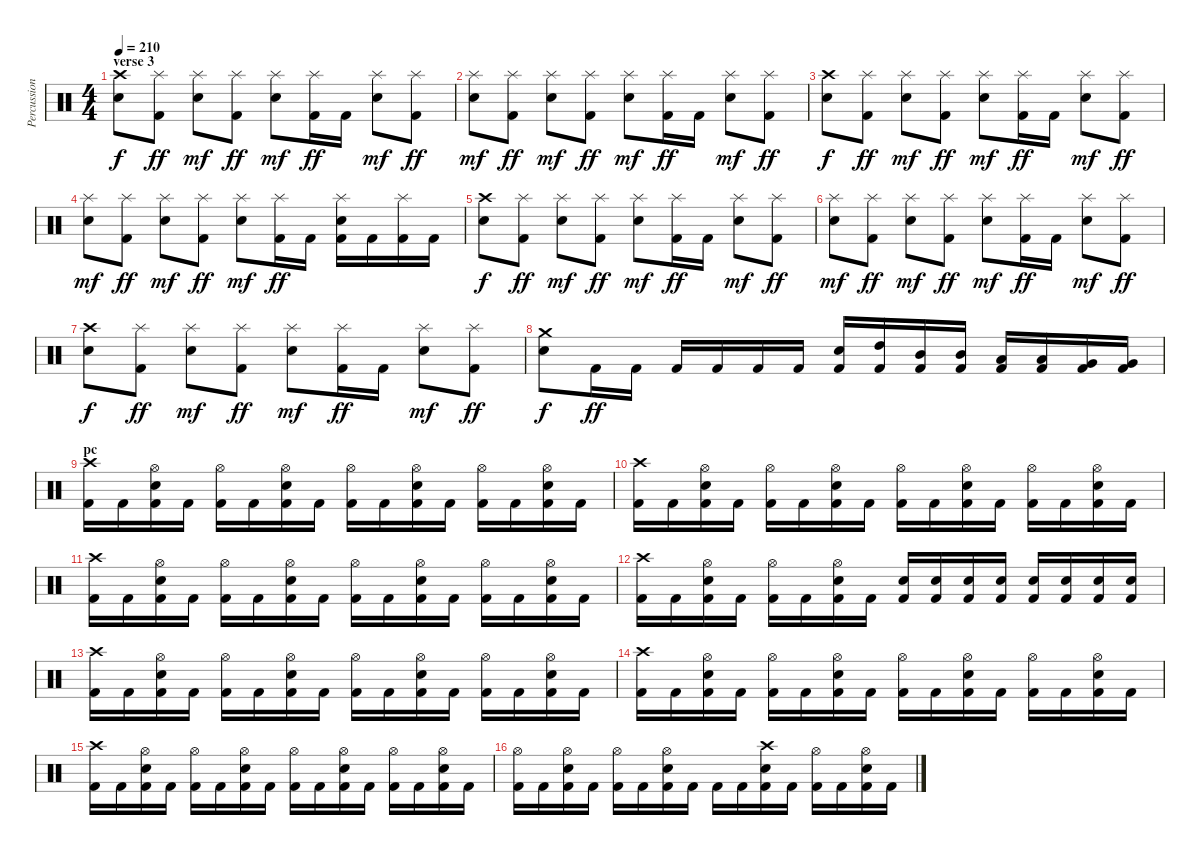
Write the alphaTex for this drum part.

\track ("Percussion" "Percussion") {instrument percussion}
\staff {score}
\articulation defaults
\ts (4 4)
\section ("" "verse 3")
\tempo 210
\clef neutral
\ks c
("Crash high (hit)" "Snare (hit) 2").8{dy f} ("Splash (hit)" "Kick (hit) 2").8{dy ff} ("Splash (hit)" "Snare (hit) 2").8{dy mf} ("Splash (hit)" "Kick (hit) 2").8{dy ff} ("Splash (hit)" "Snare (hit) 2").8{dy mf} ("Splash (hit)" "Kick (hit) 2").16{dy ff} "Kick (hit) 2".16 ("Splash (hit)" "Snare (hit) 2").8{dy mf} ("Splash (hit)" "Kick (hit) 2").8{dy ff} |
("Splash (hit)" "Snare (hit) 2").8{dy mf} ("Splash (hit)" "Kick (hit) 2").8{dy ff} ("Splash (hit)" "Snare (hit) 2").8{dy mf} ("Splash (hit)" "Kick (hit) 2").8{dy ff} ("Splash (hit)" "Snare (hit) 2").8{dy mf} ("Splash (hit)" "Kick (hit) 2").16{dy ff} "Kick (hit) 2".16 ("Splash (hit)" "Snare (hit) 2").8{dy mf} ("Splash (hit)" "Kick (hit) 2").8{dy ff} |
("Crash high (hit)" "Snare (hit) 2").8{dy f} ("Splash (hit)" "Kick (hit) 2").8{dy ff} ("Splash (hit)" "Snare (hit) 2").8{dy mf} ("Splash (hit)" "Kick (hit) 2").8{dy ff} ("Splash (hit)" "Snare (hit) 2").8{dy mf} ("Splash (hit)" "Kick (hit) 2").16{dy ff} "Kick (hit) 2".16 ("Splash (hit)" "Snare (hit) 2").8{dy mf} ("Splash (hit)" "Kick (hit) 2").8{dy ff} |
("Splash (hit)" "Snare (hit) 2").8{dy mf} ("Splash (hit)" "Kick (hit) 2").8{dy ff} ("Splash (hit)" "Snare (hit) 2").8{dy mf} ("Splash (hit)" "Kick (hit) 2").8{dy ff} ("Splash (hit)" "Snare (hit) 2").8{dy mf} ("Splash (hit)" "Kick (hit) 2").16{dy ff} "Kick (hit) 2".16 ("Splash (hit)" "Snare (hit) 2" "Kick (hit) 2").16 "Kick (hit) 2".16 ("Splash (hit)" "Kick (hit) 2").16 "Kick (hit) 2".16 |
("Crash high (hit)" "Snare (hit) 2").8{dy f} ("Splash (hit)" "Kick (hit) 2").8{dy ff} ("Splash (hit)" "Snare (hit) 2").8{dy mf} ("Splash (hit)" "Kick (hit) 2").8{dy ff} ("Splash (hit)" "Snare (hit) 2").8{dy mf} ("Splash (hit)" "Kick (hit) 2").16{dy ff} "Kick (hit) 2".16 ("Splash (hit)" "Snare (hit) 2").8{dy mf} ("Splash (hit)" "Kick (hit) 2").8{dy ff} |
("Splash (hit)" "Snare (hit) 2").8{dy mf} ("Splash (hit)" "Kick (hit) 2").8{dy ff} ("Splash (hit)" "Snare (hit) 2").8{dy mf} ("Splash (hit)" "Kick (hit) 2").8{dy ff} ("Splash (hit)" "Snare (hit) 2").8{dy mf} ("Splash (hit)" "Kick (hit) 2").16{dy ff} "Kick (hit) 2".16 ("Splash (hit)" "Snare (hit) 2").8{dy mf} ("Splash (hit)" "Kick (hit) 2").8{dy ff} |
("Crash high (hit)" "Snare (hit) 2").8{dy f} ("Splash (hit)" "Kick (hit) 2").8{dy ff} ("Splash (hit)" "Snare (hit) 2").8{dy mf} ("Splash (hit)" "Kick (hit) 2").8{dy ff} ("Splash (hit)" "Snare (hit) 2").8{dy mf} ("Splash (hit)" "Kick (hit) 2").16{dy ff} "Kick (hit) 2".16 ("Splash (hit)" "Snare (hit) 2").8{dy mf} ("Splash (hit)" "Kick (hit) 2").8{dy ff} |
("Crash medium (hit)" "Snare (hit) 2").8{dy f} "Kick (hit) 2".16{dy ff} "Kick (hit) 2".16 "Kick (hit) 2".16 "Kick (hit) 2".16 "Kick (hit) 2".16 "Kick (hit) 2".16 ("Snare (hit) 2" "Kick (hit) 2").16 ("High Tom (hit)" "Kick (hit) 2").16 ("Mid Tom (hit)" "Kick (hit) 2").16 ("Mid Tom (hit)" "Kick (hit) 2").16 ("Low Tom (hit)" "Kick (hit) 2").16 ("Low Tom (hit)" "Kick (hit) 2").16 ("Very Low Tom (hit)" "Kick (hit) 2").16 ("Very Low Tom (hit)" "Kick (hit) 2").16 |
\section ("" "pc")
("Crash high (hit)" "Kick (hit) 2").16 "Kick (hit) 2".16 ("Hi-Hat (open)" "Snare (hit) 2" "Kick (hit) 2").16 "Kick (hit) 2".16 ("Hi-Hat (open)" "Kick (hit) 2").16 "Kick (hit) 2".16 ("Hi-Hat (open)" "Snare (hit) 2" "Kick (hit) 2").16 "Kick (hit) 2".16 ("Hi-Hat (open)" "Kick (hit) 2").16 "Kick (hit) 2".16 ("Hi-Hat (open)" "Snare (hit) 2" "Kick (hit) 2").16 "Kick (hit) 2".16 ("Hi-Hat (open)" "Kick (hit) 2").16 "Kick (hit) 2".16 ("Hi-Hat (open)" "Snare (hit) 2" "Kick (hit) 2").16 "Kick (hit) 2".16 |
("Crash high (hit)" "Kick (hit) 2").16 "Kick (hit) 2".16 ("Hi-Hat (open)" "Snare (hit) 2" "Kick (hit) 2").16 "Kick (hit) 2".16 ("Hi-Hat (open)" "Kick (hit) 2").16 "Kick (hit) 2".16 ("Hi-Hat (open)" "Snare (hit) 2" "Kick (hit) 2").16 "Kick (hit) 2".16 ("Hi-Hat (open)" "Kick (hit) 2").16 "Kick (hit) 2".16 ("Hi-Hat (open)" "Snare (hit) 2" "Kick (hit) 2").16 "Kick (hit) 2".16 ("Hi-Hat (open)" "Kick (hit) 2").16 "Kick (hit) 2".16 ("Hi-Hat (open)" "Snare (hit) 2" "Kick (hit) 2").16 "Kick (hit) 2".16 |
("Crash high (hit)" "Kick (hit) 2").16 "Kick (hit) 2".16 ("Hi-Hat (open)" "Snare (hit) 2" "Kick (hit) 2").16 "Kick (hit) 2".16 ("Hi-Hat (open)" "Kick (hit) 2").16 "Kick (hit) 2".16 ("Hi-Hat (open)" "Snare (hit) 2" "Kick (hit) 2").16 "Kick (hit) 2".16 ("Hi-Hat (open)" "Kick (hit) 2").16 "Kick (hit) 2".16 ("Hi-Hat (open)" "Snare (hit) 2" "Kick (hit) 2").16 "Kick (hit) 2".16 ("Hi-Hat (open)" "Kick (hit) 2").16 "Kick (hit) 2".16 ("Hi-Hat (open)" "Snare (hit) 2" "Kick (hit) 2").16 "Kick (hit) 2".16 |
("Crash high (hit)" "Kick (hit) 2").16 "Kick (hit) 2".16 ("Hi-Hat (open)" "Snare (hit) 2" "Kick (hit) 2").16 "Kick (hit) 2".16 ("Hi-Hat (open)" "Kick (hit) 2").16 "Kick (hit) 2".16 ("Hi-Hat (open)" "Snare (hit) 2" "Kick (hit) 2").16 "Kick (hit) 2".16 ("Snare (hit) 2" "Kick (hit) 2").16 ("Snare (hit) 2" "Kick (hit) 2").16 ("Snare (hit) 2" "Kick (hit) 2").16 ("Snare (hit) 2" "Kick (hit) 2").16 ("Snare (hit) 2" "Kick (hit) 2").16 ("Snare (hit) 2" "Kick (hit) 2").16 ("Snare (hit) 2" "Kick (hit) 2").16 ("Snare (hit) 2" "Kick (hit) 2").16 |
("Crash high (hit)" "Kick (hit) 2").16 "Kick (hit) 2".16 ("Hi-Hat (open)" "Snare (hit) 2" "Kick (hit) 2").16 "Kick (hit) 2".16 ("Hi-Hat (open)" "Kick (hit) 2").16 "Kick (hit) 2".16 ("Hi-Hat (open)" "Snare (hit) 2" "Kick (hit) 2").16 "Kick (hit) 2".16 ("Hi-Hat (open)" "Kick (hit) 2").16 "Kick (hit) 2".16 ("Hi-Hat (open)" "Snare (hit) 2" "Kick (hit) 2").16 "Kick (hit) 2".16 ("Hi-Hat (open)" "Kick (hit) 2").16 "Kick (hit) 2".16 ("Hi-Hat (open)" "Snare (hit) 2" "Kick (hit) 2").16 "Kick (hit) 2".16 |
("Crash high (hit)" "Kick (hit) 2").16 "Kick (hit) 2".16 ("Hi-Hat (open)" "Snare (hit) 2" "Kick (hit) 2").16 "Kick (hit) 2".16 ("Hi-Hat (open)" "Kick (hit) 2").16 "Kick (hit) 2".16 ("Hi-Hat (open)" "Snare (hit) 2" "Kick (hit) 2").16 "Kick (hit) 2".16 ("Hi-Hat (open)" "Kick (hit) 2").16 "Kick (hit) 2".16 ("Hi-Hat (open)" "Snare (hit) 2" "Kick (hit) 2").16 "Kick (hit) 2".16 ("Hi-Hat (open)" "Kick (hit) 2").16 "Kick (hit) 2".16 ("Hi-Hat (open)" "Snare (hit) 2" "Kick (hit) 2").16 "Kick (hit) 2".16 |
("Crash high (hit)" "Kick (hit) 2").16 "Kick (hit) 2".16 ("Hi-Hat (open)" "Snare (hit) 2" "Kick (hit) 2").16 "Kick (hit) 2".16 ("Hi-Hat (open)" "Kick (hit) 2").16 "Kick (hit) 2".16 ("Hi-Hat (open)" "Snare (hit) 2" "Kick (hit) 2").16 "Kick (hit) 2".16 ("Hi-Hat (open)" "Kick (hit) 2").16 "Kick (hit) 2".16 ("Hi-Hat (open)" "Snare (hit) 2" "Kick (hit) 2").16 "Kick (hit) 2".16 ("Hi-Hat (open)" "Kick (hit) 2").16 "Kick (hit) 2".16 ("Hi-Hat (open)" "Snare (hit) 2" "Kick (hit) 2").16 "Kick (hit) 2".16 |
("Hi-Hat (open)" "Kick (hit) 2").16 "Kick (hit) 2".16 ("Hi-Hat (open)" "Snare (hit) 2" "Kick (hit) 2").16 "Kick (hit) 2".16 ("Hi-Hat (open)" "Kick (hit) 2").16 "Kick (hit) 2".16 ("Hi-Hat (open)" "Snare (hit) 2" "Kick (hit) 2").16 "Kick (hit) 2".16 "Kick (hit) 2".16 "Kick (hit) 2".16 ("Crash high (hit)" "Snare (hit) 2" "Kick (hit) 2").16 "Kick (hit) 2".16 ("Hi-Hat (open)" "Kick (hit) 2").16 "Kick (hit) 2".16 ("Hi-Hat (open)" "Snare (hit) 2" "Kick (hit) 2").16 "Kick (hit) 2".16
